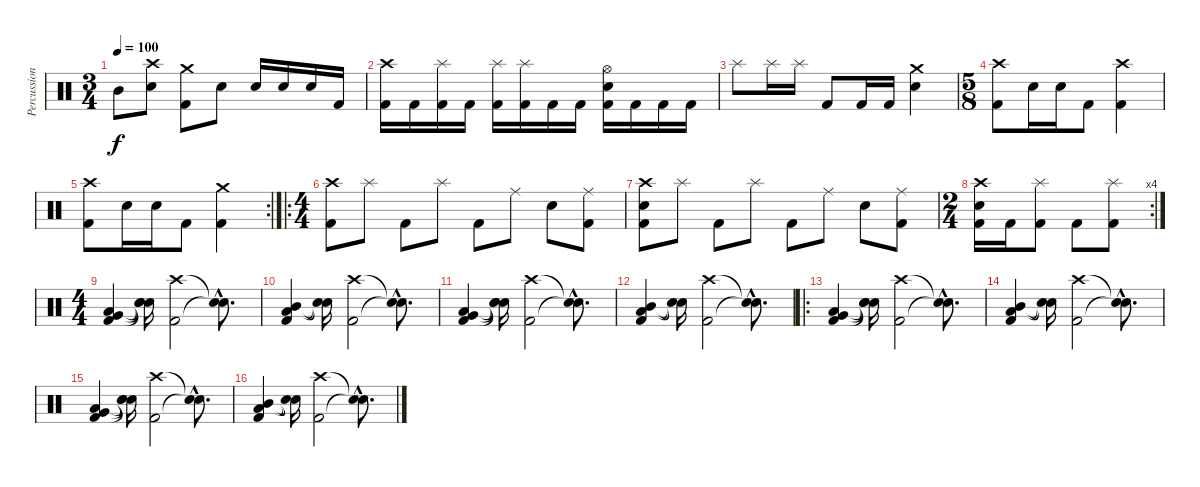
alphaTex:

\track ("Percussion" "Percussion") {instrument percussion}
\staff {score}
\articulation defaults
\ts (3 4)
\tempo 100
\clef neutral
\ks c "Mid Tom (hit)".8{dy f}
("Crash high (hit)" "Electric Snare (hit)").8 ("Crash medium (hit)" "Kick (hit) 2").8 "Electric Snare (hit)".8 "Electric Snare (hit)".16 "Electric Snare (hit)".16 "Electric Snare (hit)".16 "Kick (hit) 2".16 |
("Crash high (hit)" "Kick (hit) 2").16 "Kick (hit) 2".16 ("Splash (hit)" "Kick (hit) 2").16 "Kick (hit) 2".16 ("Splash (hit)" "Kick (hit) 2").16 ("Splash (hit)" "Kick (hit) 2").16 "Kick (hit) 2".16 "Kick (hit) 2".16 ("Hi-Hat (open)" "Electric Snare (hit)" "Kick (hit) 2").16 "Kick (hit) 2".16 "Kick (hit) 2".16 "Kick (hit) 2".16 |
"Splash (hit)".8 "Splash (hit)".16 "Splash (hit)".16 "Kick (hit) 2".8 "Kick (hit) 2".16 "Kick (hit) 2".16 ("Crash medium (hit)" "Electric Snare (hit)").4 |
\ts (5 8)
("Crash high (hit)" "Kick (hit) 2").8 "Electric Snare (hit)".16 "Electric Snare (hit)".16 "Kick (hit) 2".8 ("Crash high (hit)" "Kick (hit) 2").4 |
\rc 2
("Crash high (hit)" "Kick (hit) 2").8 "Electric Snare (hit)".16 "Electric Snare (hit)".16 "Kick (hit) 2".8 ("Crash medium (hit)" "Kick (hit) 2").4 |
\ro
\ts (4 4)
("Crash high (hit)" "Kick (hit) 2").8 "Splash (hit)".8 "Kick (hit) 2".8 "Splash (hit)".8 "Kick (hit) 2".8 "Ride (middle)".8 "Electric Snare (hit)".8 ("Ride (middle)" "Kick (hit) 2").8 |
("Crash high (hit)" "Electric Snare (hit)" "Kick (hit) 2").8 "Splash (hit)".8 "Kick (hit) 2".8 "Splash (hit)".8 "Kick (hit) 2".8 "Ride (middle)".8 "Electric Snare (hit)".8 ("Ride (middle)" "Kick (hit) 2").8 |
\rc 4
\ts (2 4)
("Crash high (hit)" "Electric Snare (hit)" "Kick (hit) 2").16 "Kick (hit) 2".16 ("Splash (hit)" "Kick (hit) 2").8 "Kick (hit) 2".8 ("Splash (hit)" "Kick (hit) 2").8 |
\ts (4 4)
("Very Low Tom (hit)" "Low Floor Tom (hit)" "Kick (hit) 2").4 ("Snare (hit)"{t} "Snare (hit)"{t} "Snare (hit)"{t}).16 ("Crash high (hit)" "Kick (hit) 2").2 ("Snare (hit)"{hac t} "Snare (hit)"{hac t}).8{d} |
("Mid Tom (hit)" "Low Tom (hit)" "Kick (hit) 2").4 ("Snare (hit)"{t} "Snare (hit)"{t}).16 ("Crash high (hit)" "Kick (hit) 2").2 ("Snare (hit)"{hac t} "Snare (hit)"{hac t}).8{d} |
("Very Low Tom (hit)" "Low Floor Tom (hit)" "Kick (hit) 2").4 ("Snare (hit)"{t} "Snare (hit)"{t} "Snare (hit)"{t}).16 ("Crash high (hit)" "Kick (hit) 2").2 ("Snare (hit)"{hac t} "Snare (hit)"{hac t}).8{d} |
("Mid Tom (hit)" "Low Tom (hit)" "Kick (hit) 2").4 ("Snare (hit)"{t} "Snare (hit)"{t}).16 ("Crash high (hit)" "Kick (hit) 2").2 ("Snare (hit)"{hac t} "Snare (hit)"{hac t}).8{d} |
\ro
("Very Low Tom (hit)" "Low Floor Tom (hit)" "Kick (hit) 2").4 ("Snare (hit)"{t} "Snare (hit)"{t} "Snare (hit)"{t}).16 ("Crash high (hit)" "Kick (hit) 2").2 ("Snare (hit)"{hac t} "Snare (hit)"{hac t}).8{d} |
("Mid Tom (hit)" "Low Tom (hit)" "Kick (hit) 2").4 ("Snare (hit)"{t} "Snare (hit)"{t}).16 ("Crash high (hit)" "Kick (hit) 2").2 ("Snare (hit)"{hac t} "Snare (hit)"{hac t}).8{d} |
("Very Low Tom (hit)" "Low Floor Tom (hit)" "Kick (hit) 2").4 ("Snare (hit)"{t} "Snare (hit)"{t} "Snare (hit)"{t}).16 ("Crash high (hit)" "Kick (hit) 2").2 ("Snare (hit)"{hac t} "Snare (hit)"{hac t}).8{d} |
("Mid Tom (hit)" "Low Tom (hit)" "Kick (hit) 2").4 ("Snare (hit)"{t} "Snare (hit)"{t}).16 ("Crash high (hit)" "Kick (hit) 2").2 ("Snare (hit)"{hac t} "Snare (hit)"{hac t}).8{d}
